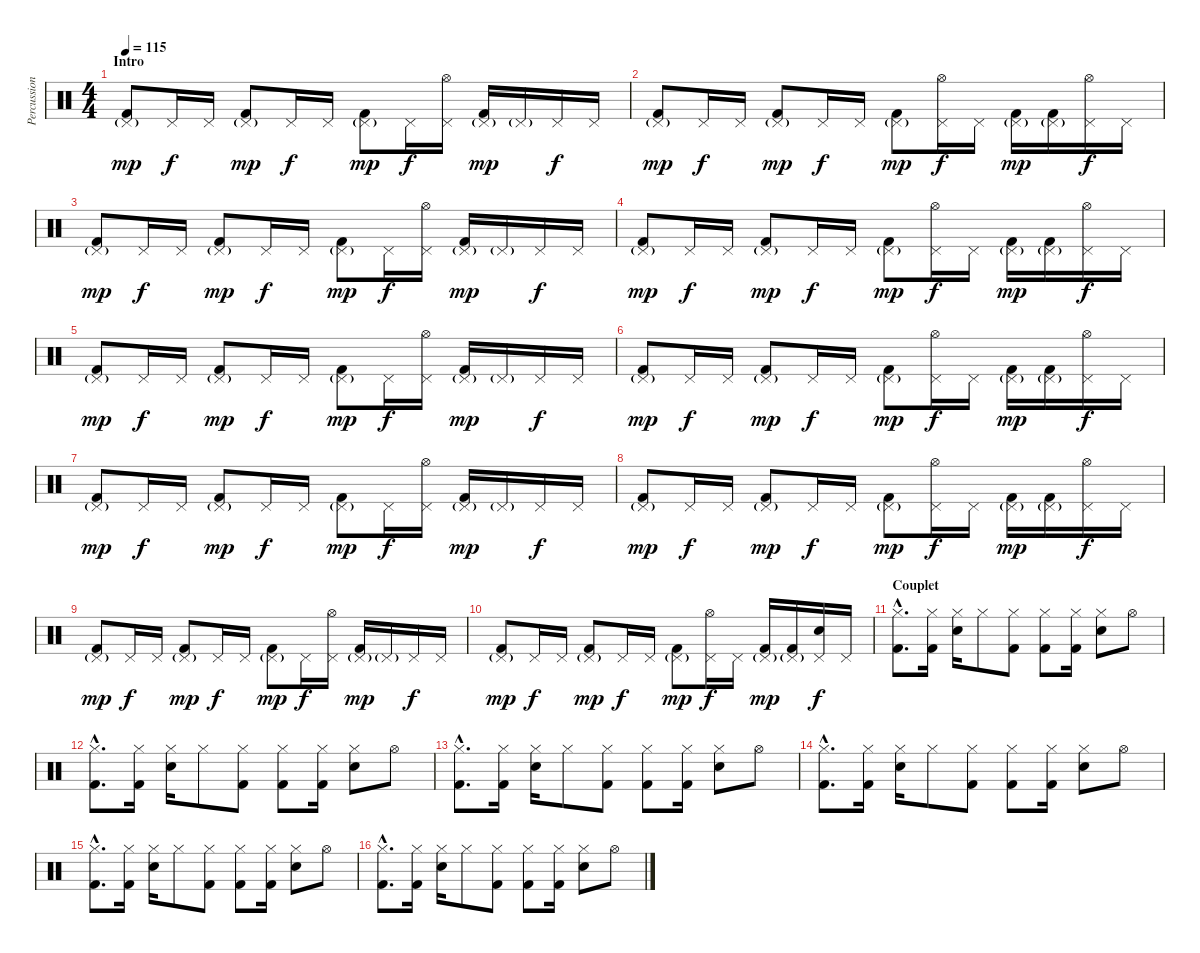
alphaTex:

\track ("Percussions" "Percussion") {instrument percussion}
\staff {score}
\articulation defaults
\ts (4 4)
\section ("" "Intro")
\tempo 115
\clef neutral
\ks c
("Kick (hit) 2" "Pedal Hi-Hat (hit)"{g}).8{dy mp} "Pedal Hi-Hat (hit)".16{dy f} "Pedal Hi-Hat (hit)".16 ("Kick (hit) 2" "Pedal Hi-Hat (hit)"{g}).8{dy mp} "Pedal Hi-Hat (hit)".16{dy f} "Pedal Hi-Hat (hit)".16 ("Kick (hit) 2" "Pedal Hi-Hat (hit)"{g}).8{dy mp} "Pedal Hi-Hat (hit)".16{dy f} ("Pedal Hi-Hat (hit)" "Hi-Hat (open)").16 ("Kick (hit) 2" "Pedal Hi-Hat (hit)"{g}).16{dy mp} "Pedal Hi-Hat (hit)"{g}.16 "Pedal Hi-Hat (hit)".16{dy f} "Pedal Hi-Hat (hit)".16 |
("Kick (hit) 2" "Pedal Hi-Hat (hit)"{g}).8{dy mp} "Pedal Hi-Hat (hit)".16{dy f} "Pedal Hi-Hat (hit)".16 ("Kick (hit) 2" "Pedal Hi-Hat (hit)"{g}).8{dy mp} "Pedal Hi-Hat (hit)".16{dy f} "Pedal Hi-Hat (hit)".16 ("Kick (hit) 2" "Pedal Hi-Hat (hit)"{g}).8{dy mp} ("Pedal Hi-Hat (hit)" "Hi-Hat (open)").16{dy f} "Pedal Hi-Hat (hit)".16 ("Kick (hit) 2" "Pedal Hi-Hat (hit)"{g}).16{dy mp} ("Kick (hit) 2" "Pedal Hi-Hat (hit)"{g}).16 ("Pedal Hi-Hat (hit)" "Hi-Hat (open)").16{dy f} "Pedal Hi-Hat (hit)".16 |
("Kick (hit) 2" "Pedal Hi-Hat (hit)"{g}).8{dy mp} "Pedal Hi-Hat (hit)".16{dy f} "Pedal Hi-Hat (hit)".16 ("Kick (hit) 2" "Pedal Hi-Hat (hit)"{g}).8{dy mp} "Pedal Hi-Hat (hit)".16{dy f} "Pedal Hi-Hat (hit)".16 ("Kick (hit) 2" "Pedal Hi-Hat (hit)"{g}).8{dy mp} "Pedal Hi-Hat (hit)".16{dy f} ("Pedal Hi-Hat (hit)" "Hi-Hat (open)").16 ("Kick (hit) 2" "Pedal Hi-Hat (hit)"{g}).16{dy mp} "Pedal Hi-Hat (hit)"{g}.16 "Pedal Hi-Hat (hit)".16{dy f} "Pedal Hi-Hat (hit)".16 |
("Kick (hit) 2" "Pedal Hi-Hat (hit)"{g}).8{dy mp} "Pedal Hi-Hat (hit)".16{dy f} "Pedal Hi-Hat (hit)".16 ("Kick (hit) 2" "Pedal Hi-Hat (hit)"{g}).8{dy mp} "Pedal Hi-Hat (hit)".16{dy f} "Pedal Hi-Hat (hit)".16 ("Kick (hit) 2" "Pedal Hi-Hat (hit)"{g}).8{dy mp} ("Pedal Hi-Hat (hit)" "Hi-Hat (open)").16{dy f} "Pedal Hi-Hat (hit)".16 ("Kick (hit) 2" "Pedal Hi-Hat (hit)"{g}).16{dy mp} ("Kick (hit) 2" "Pedal Hi-Hat (hit)"{g}).16 ("Pedal Hi-Hat (hit)" "Hi-Hat (open)").16{dy f} "Pedal Hi-Hat (hit)".16 |
("Kick (hit) 2" "Pedal Hi-Hat (hit)"{g}).8{dy mp} "Pedal Hi-Hat (hit)".16{dy f} "Pedal Hi-Hat (hit)".16 ("Kick (hit) 2" "Pedal Hi-Hat (hit)"{g}).8{dy mp} "Pedal Hi-Hat (hit)".16{dy f} "Pedal Hi-Hat (hit)".16 ("Kick (hit) 2" "Pedal Hi-Hat (hit)"{g}).8{dy mp} "Pedal Hi-Hat (hit)".16{dy f} ("Pedal Hi-Hat (hit)" "Hi-Hat (open)").16 ("Kick (hit) 2" "Pedal Hi-Hat (hit)"{g}).16{dy mp} "Pedal Hi-Hat (hit)"{g}.16 "Pedal Hi-Hat (hit)".16{dy f} "Pedal Hi-Hat (hit)".16 |
("Kick (hit) 2" "Pedal Hi-Hat (hit)"{g}).8{dy mp} "Pedal Hi-Hat (hit)".16{dy f} "Pedal Hi-Hat (hit)".16 ("Kick (hit) 2" "Pedal Hi-Hat (hit)"{g}).8{dy mp} "Pedal Hi-Hat (hit)".16{dy f} "Pedal Hi-Hat (hit)".16 ("Kick (hit) 2" "Pedal Hi-Hat (hit)"{g}).8{dy mp} ("Pedal Hi-Hat (hit)" "Hi-Hat (open)").16{dy f} "Pedal Hi-Hat (hit)".16 ("Kick (hit) 2" "Pedal Hi-Hat (hit)"{g}).16{dy mp} ("Kick (hit) 2" "Pedal Hi-Hat (hit)"{g}).16 ("Pedal Hi-Hat (hit)" "Hi-Hat (open)").16{dy f} "Pedal Hi-Hat (hit)".16 |
("Kick (hit) 2" "Pedal Hi-Hat (hit)"{g}).8{dy mp} "Pedal Hi-Hat (hit)".16{dy f} "Pedal Hi-Hat (hit)".16 ("Kick (hit) 2" "Pedal Hi-Hat (hit)"{g}).8{dy mp} "Pedal Hi-Hat (hit)".16{dy f} "Pedal Hi-Hat (hit)".16 ("Kick (hit) 2" "Pedal Hi-Hat (hit)"{g}).8{dy mp} "Pedal Hi-Hat (hit)".16{dy f} ("Pedal Hi-Hat (hit)" "Hi-Hat (open)").16 ("Kick (hit) 2" "Pedal Hi-Hat (hit)"{g}).16{dy mp} "Pedal Hi-Hat (hit)"{g}.16 "Pedal Hi-Hat (hit)".16{dy f} "Pedal Hi-Hat (hit)".16 |
("Kick (hit) 2" "Pedal Hi-Hat (hit)"{g}).8{dy mp} "Pedal Hi-Hat (hit)".16{dy f} "Pedal Hi-Hat (hit)".16 ("Kick (hit) 2" "Pedal Hi-Hat (hit)"{g}).8{dy mp} "Pedal Hi-Hat (hit)".16{dy f} "Pedal Hi-Hat (hit)".16 ("Kick (hit) 2" "Pedal Hi-Hat (hit)"{g}).8{dy mp} ("Pedal Hi-Hat (hit)" "Hi-Hat (open)").16{dy f} "Pedal Hi-Hat (hit)".16 ("Kick (hit) 2" "Pedal Hi-Hat (hit)"{g}).16{dy mp} ("Kick (hit) 2" "Pedal Hi-Hat (hit)"{g}).16 ("Pedal Hi-Hat (hit)" "Hi-Hat (open)").16{dy f} "Pedal Hi-Hat (hit)".16 |
("Kick (hit) 2" "Pedal Hi-Hat (hit)"{g}).8{dy mp} "Pedal Hi-Hat (hit)".16{dy f} "Pedal Hi-Hat (hit)".16 ("Kick (hit) 2" "Pedal Hi-Hat (hit)"{g}).8{dy mp} "Pedal Hi-Hat (hit)".16{dy f} "Pedal Hi-Hat (hit)".16 ("Kick (hit) 2" "Pedal Hi-Hat (hit)"{g}).8{dy mp} "Pedal Hi-Hat (hit)".16{dy f} ("Pedal Hi-Hat (hit)" "Hi-Hat (open)").16 ("Kick (hit) 2" "Pedal Hi-Hat (hit)"{g}).16{dy mp} "Pedal Hi-Hat (hit)"{g}.16 "Pedal Hi-Hat (hit)".16{dy f} "Pedal Hi-Hat (hit)".16 |
("Kick (hit) 2" "Pedal Hi-Hat (hit)"{g}).8{dy mp} "Pedal Hi-Hat (hit)".16{dy f} "Pedal Hi-Hat (hit)".16 ("Kick (hit) 2" "Pedal Hi-Hat (hit)"{g}).8{dy mp} "Pedal Hi-Hat (hit)".16{dy f} "Pedal Hi-Hat (hit)".16 ("Kick (hit) 2" "Pedal Hi-Hat (hit)"{g}).8{dy mp} ("Pedal Hi-Hat (hit)" "Hi-Hat (open)").16{dy f} "Pedal Hi-Hat (hit)".16 ("Kick (hit) 2" "Pedal Hi-Hat (hit)"{g}).16{dy mp} ("Kick (hit) 2" "Pedal Hi-Hat (hit)"{g}).16 ("Pedal Hi-Hat (hit)" "Snare (hit) 2").16{dy f} "Pedal Hi-Hat (hit)".16 |
\section ("" "Couplet")
("Kick (hit) 2"{hac} "Hi-Hat (closed)"{hac}).8{d} ("Kick (hit) 2" "Hi-Hat (closed)").16 ("Hi-Hat (closed)" "Snare (hit) 2").16 "Hi-Hat (closed)".8 ("Kick (hit) 2" "Hi-Hat (closed)").8 ("Kick (hit) 2" "Hi-Hat (closed)").8 ("Kick (hit) 2" "Hi-Hat (closed)").16 ("Hi-Hat (closed)" "Snare (hit) 2").8 "Hi-Hat (open)".8 |
("Kick (hit) 2"{hac} "Hi-Hat (closed)"{hac}).8{d} ("Kick (hit) 2" "Hi-Hat (closed)").16 ("Hi-Hat (closed)" "Snare (hit) 2").16 "Hi-Hat (closed)".8 ("Kick (hit) 2" "Hi-Hat (closed)").8 ("Kick (hit) 2" "Hi-Hat (closed)").8 ("Kick (hit) 2" "Hi-Hat (closed)").16 ("Hi-Hat (closed)" "Snare (hit) 2").8 "Hi-Hat (open)".8 |
("Kick (hit) 2"{hac} "Hi-Hat (closed)"{hac}).8{d} ("Kick (hit) 2" "Hi-Hat (closed)").16 ("Hi-Hat (closed)" "Snare (hit) 2").16 "Hi-Hat (closed)".8 ("Kick (hit) 2" "Hi-Hat (closed)").8 ("Kick (hit) 2" "Hi-Hat (closed)").8 ("Kick (hit) 2" "Hi-Hat (closed)").16 ("Hi-Hat (closed)" "Snare (hit) 2").8 "Hi-Hat (open)".8 |
("Kick (hit) 2"{hac} "Hi-Hat (closed)"{hac}).8{d} ("Kick (hit) 2" "Hi-Hat (closed)").16 ("Hi-Hat (closed)" "Snare (hit) 2").16 "Hi-Hat (closed)".8 ("Kick (hit) 2" "Hi-Hat (closed)").8 ("Kick (hit) 2" "Hi-Hat (closed)").8 ("Kick (hit) 2" "Hi-Hat (closed)").16 ("Hi-Hat (closed)" "Snare (hit) 2").8 "Hi-Hat (open)".8 |
("Kick (hit) 2"{hac} "Hi-Hat (closed)"{hac}).8{d} ("Kick (hit) 2" "Hi-Hat (closed)").16 ("Hi-Hat (closed)" "Snare (hit) 2").16 "Hi-Hat (closed)".8 ("Kick (hit) 2" "Hi-Hat (closed)").8 ("Kick (hit) 2" "Hi-Hat (closed)").8 ("Kick (hit) 2" "Hi-Hat (closed)").16 ("Hi-Hat (closed)" "Snare (hit) 2").8 "Hi-Hat (open)".8 |
("Kick (hit) 2"{hac} "Hi-Hat (closed)"{hac}).8{d} ("Kick (hit) 2" "Hi-Hat (closed)").16 ("Hi-Hat (closed)" "Snare (hit) 2").16 "Hi-Hat (closed)".8 ("Kick (hit) 2" "Hi-Hat (closed)").8 ("Kick (hit) 2" "Hi-Hat (closed)").8 ("Kick (hit) 2" "Hi-Hat (closed)").16 ("Hi-Hat (closed)" "Snare (hit) 2").8 "Hi-Hat (open)".8
